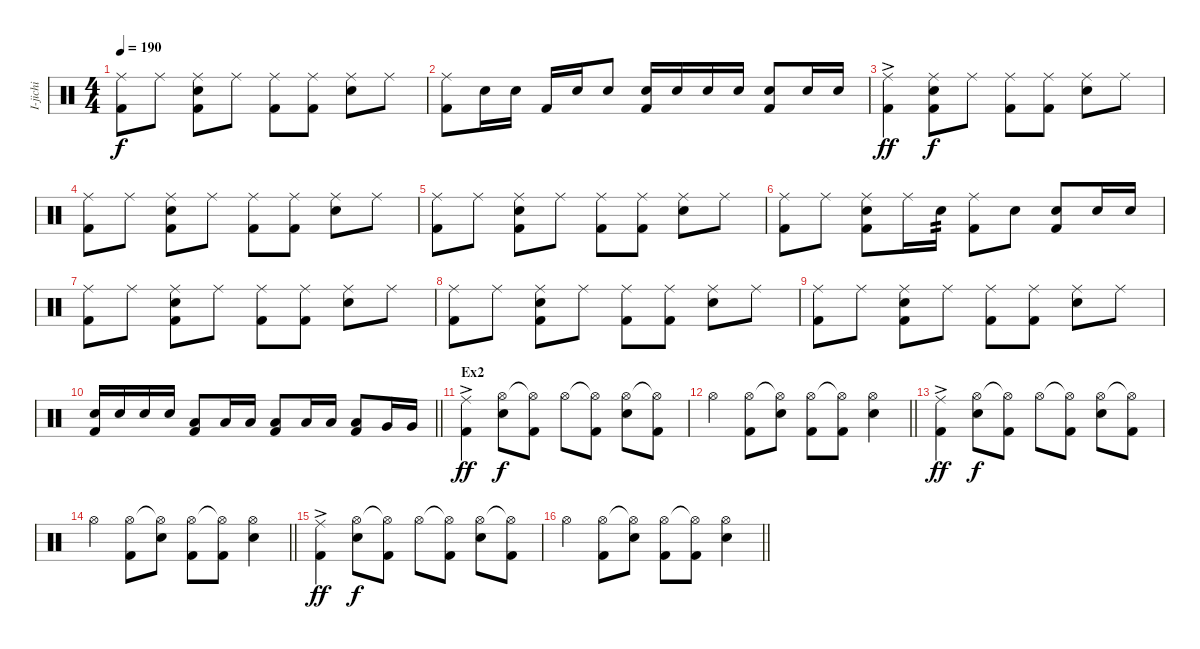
\track ("I-jichi" "I-jichi") {instrument percussion}
\staff {score}
\articulation defaults
\ts (4 4)
\tempo 190
\clef neutral
\ks c
("Ride (middle)" "Kick (hit) 2").8{dy f} "Ride (middle)".8 ("Ride (middle)" "Snare (hit) 2" "Kick (hit) 2").8 "Ride (middle)".8 ("Ride (middle)" "Kick (hit) 2").8 ("Ride (middle)" "Kick (hit) 2").8 ("Ride (middle)" "Snare (hit) 2").8 "Ride (middle)".8 |
("Ride (middle)" "Kick (hit) 2").8 "Snare (hit) 2".16 "Snare (hit) 2".16 "Kick (hit) 2".16 "Snare (hit) 2".16 "Snare (hit) 2".8 ("Snare (hit) 2" "Kick (hit) 2").16 "Snare (hit) 2".16 "Snare (hit) 2".16 "Snare (hit) 2".16 ("Snare (hit) 2" "Kick (hit) 2").8 "Snare (hit) 2".16 "Snare (hit) 2".16 |
("Ride (middle)"{ac} "Kick (hit) 2").4{dy ff} ("Ride (middle)" "Snare (hit) 2" "Kick (hit) 2").8{dy f} "Ride (middle)".8 ("Ride (middle)" "Kick (hit) 2").8 ("Ride (middle)" "Kick (hit) 2").8 ("Ride (middle)" "Snare (hit) 2").8 "Ride (middle)".8 |
("Ride (middle)" "Kick (hit) 2").8 "Ride (middle)".8 ("Ride (middle)" "Snare (hit) 2" "Kick (hit) 2").8 "Ride (middle)".8 ("Ride (middle)" "Kick (hit) 2").8 ("Ride (middle)" "Kick (hit) 2").8 ("Ride (middle)" "Snare (hit) 2").8 "Ride (middle)".8 |
("Ride (middle)" "Kick (hit) 2").8 "Ride (middle)".8 ("Ride (middle)" "Snare (hit) 2" "Kick (hit) 2").8 "Ride (middle)".8 ("Ride (middle)" "Kick (hit) 2").8 ("Ride (middle)" "Kick (hit) 2").8 ("Ride (middle)" "Snare (hit) 2").8 "Ride (middle)".8 |
("Ride (middle)" "Kick (hit) 2").8 "Ride (middle)".8 ("Ride (middle)" "Snare (hit) 2" "Kick (hit) 2").8 "Ride (middle)".16 "Snare (hit) 2".16{tp 2} ("Ride (middle)" "Kick (hit) 2").8 "Snare (hit) 2".8 ("Snare (hit) 2" "Kick (hit) 2").8 "Snare (hit) 2".16 "Snare (hit) 2".16 |
("Ride (middle)" "Kick (hit) 2").8 "Ride (middle)".8 ("Ride (middle)" "Snare (hit) 2" "Kick (hit) 2").8 "Ride (middle)".8 ("Ride (middle)" "Kick (hit) 2").8 ("Ride (middle)" "Kick (hit) 2").8 ("Ride (middle)" "Snare (hit) 2").8 "Ride (middle)".8 |
("Ride (middle)" "Kick (hit) 2").8 "Ride (middle)".8 ("Ride (middle)" "Snare (hit) 2" "Kick (hit) 2").8 "Ride (middle)".8 ("Ride (middle)" "Kick (hit) 2").8 ("Ride (middle)" "Kick (hit) 2").8 ("Ride (middle)" "Snare (hit) 2").8 "Ride (middle)".8 |
("Ride (middle)" "Kick (hit) 2").8 "Ride (middle)".8 ("Ride (middle)" "Snare (hit) 2" "Kick (hit) 2").8 "Ride (middle)".8 ("Ride (middle)" "Kick (hit) 2").8 ("Ride (middle)" "Kick (hit) 2").8 ("Ride (middle)" "Snare (hit) 2").8 "Ride (middle)".8 |
\barLineRight lightlight
("Snare (hit) 2" "Kick (hit) 2").16 "Snare (hit) 2".16 "Snare (hit) 2".16 "Snare (hit) 2".16 ("Low Tom (hit)" "Kick (hit) 2").8 "Low Tom (hit)".16 "Low Tom (hit)".16 ("Low Tom (hit)" "Kick (hit) 2").8 "Low Tom (hit)".16 "Low Tom (hit)".16 ("Low Tom (hit)" "Kick (hit) 2").8 "Very Low Tom (hit)".16 "Very Low Tom (hit)".16 |
\section ("" "Ex2")
("Ride (middle)"{ac} "Kick (hit) 2").4{dy ff} ("Hi-Hat (open)" "Snare (hit) 2").8{dy f} ("Hi-Hat (open)"{t} "Kick (hit) 2").8 "Hi-Hat (open)".8 ("Hi-Hat (open)"{t} "Kick (hit) 2").8 ("Hi-Hat (open)" "Snare (hit) 2").8 ("Hi-Hat (open)"{t} "Kick (hit) 2").8 |
\barLineRight lightlight "Hi-Hat (open)".4
("Hi-Hat (open)" "Kick (hit) 2").8 ("Hi-Hat (open)"{t} "Snare (hit) 2").8 ("Hi-Hat (open)" "Kick (hit) 2").8 ("Hi-Hat (open)"{t} "Kick (hit) 2").8 ("Hi-Hat (open)" "Snare (hit) 2").4 |
("Ride (middle)"{ac} "Kick (hit) 2").4{dy ff} ("Hi-Hat (open)" "Snare (hit) 2").8{dy f} ("Hi-Hat (open)"{t} "Kick (hit) 2").8 "Hi-Hat (open)".8 ("Hi-Hat (open)"{t} "Kick (hit) 2").8 ("Hi-Hat (open)" "Snare (hit) 2").8 ("Hi-Hat (open)"{t} "Kick (hit) 2").8 |
\barLineRight lightlight "Hi-Hat (open)".4
("Hi-Hat (open)" "Kick (hit) 2").8 ("Hi-Hat (open)"{t} "Snare (hit) 2").8 ("Hi-Hat (open)" "Kick (hit) 2").8 ("Hi-Hat (open)"{t} "Kick (hit) 2").8 ("Hi-Hat (open)" "Snare (hit) 2").4 |
("Ride (middle)"{ac} "Kick (hit) 2").4{dy ff} ("Hi-Hat (open)" "Snare (hit) 2").8{dy f} ("Hi-Hat (open)"{t} "Kick (hit) 2").8 "Hi-Hat (open)".8 ("Hi-Hat (open)"{t} "Kick (hit) 2").8 ("Hi-Hat (open)" "Snare (hit) 2").8 ("Hi-Hat (open)"{t} "Kick (hit) 2").8 |
\barLineRight lightlight "Hi-Hat (open)".4
("Hi-Hat (open)" "Kick (hit) 2").8 ("Hi-Hat (open)"{t} "Snare (hit) 2").8 ("Hi-Hat (open)" "Kick (hit) 2").8 ("Hi-Hat (open)"{t} "Kick (hit) 2").8 ("Hi-Hat (open)" "Snare (hit) 2").4
